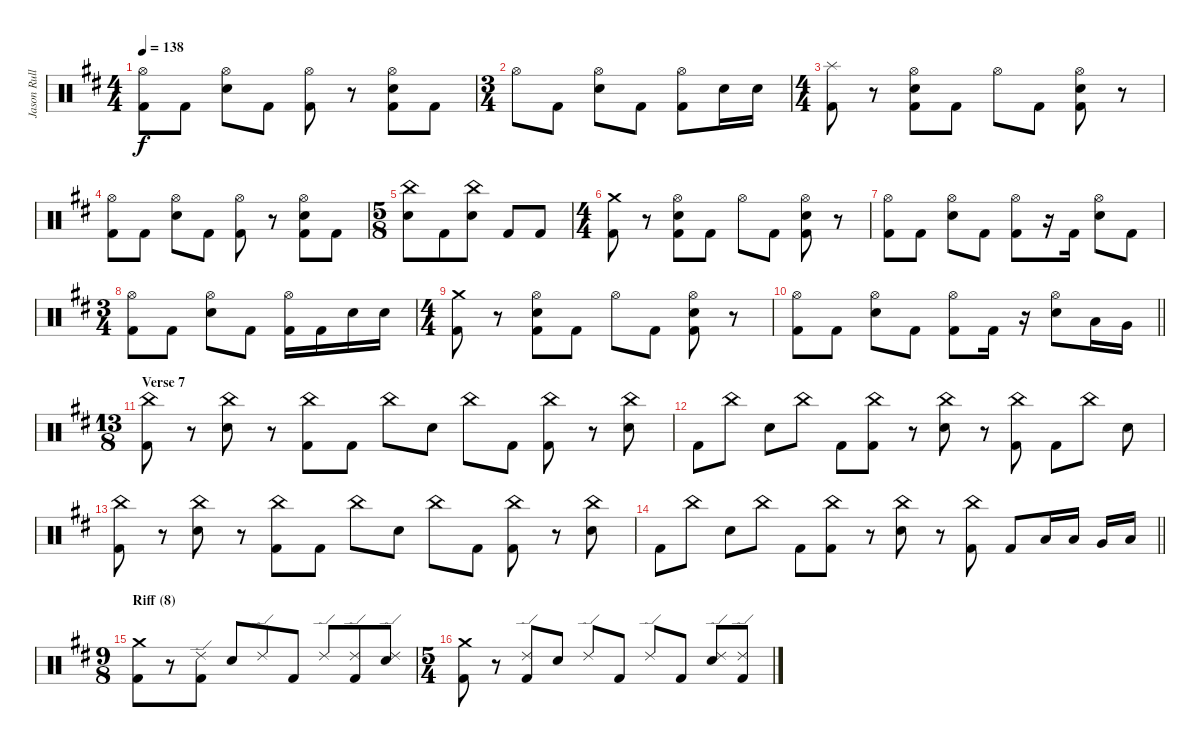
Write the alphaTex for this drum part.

\track ("Jason Rullo (drums)" "Jason Rull") {instrument percussion}
\staff {score}
\articulation defaults
\ts (4 4)
\tempo 138
\clef neutral
\ks bminor
("Hi-Hat (open)" "Kick (hit) 2").8{dy f} "Kick (hit) 2".8 ("Hi-Hat (open)" "Electric Snare (hit)").8 "Kick (hit) 2".8 ("Hi-Hat (open)" "Kick (hit) 2").8 r.8 ("Hi-Hat (open)" "Electric Snare (hit)" "Kick (hit) 2").8 "Kick (hit) 2".8 |
\ts (3 4)
"Hi-Hat (open)".8 "Kick (hit) 2".8 ("Hi-Hat (open)" "Electric Snare (hit)").8 "Kick (hit) 2".8 ("Hi-Hat (open)" "Kick (hit) 2").8 "Electric Snare (hit)".16 "Electric Snare (hit)".16 |
\ts (4 4)
("Splash (hit)" "Kick (hit) 2").8 r.8 ("Hi-Hat (open)" "Electric Snare (hit)" "Kick (hit) 2").8 "Kick (hit) 2".8 "Hi-Hat (open)".8 "Kick (hit) 2".8 ("Hi-Hat (open)" "Kick (hit) 2" "Electric Snare (hit)").8 r.8 |
("Hi-Hat (open)" "Kick (hit) 2").8 "Kick (hit) 2".8 ("Hi-Hat (open)" "Electric Snare (hit)").8 "Kick (hit) 2".8 ("Hi-Hat (open)" "Kick (hit) 2").8 r.8 ("Hi-Hat (open)" "Electric Snare (hit)" "Kick (hit) 2").8 "Kick (hit) 2".8 |
\ts (5 8)
("China (hit)" "Electric Snare (hit)").8 "Kick (hit) 2".8 ("China (hit)" "Electric Snare (hit)").8 "Kick (hit) 2".8 "Kick (hit) 2".8 |
\ts (4 4)
("Crash medium (hit)" "Kick (hit) 2").8 r.8 ("Hi-Hat (open)" "Electric Snare (hit)" "Kick (hit) 2").8 "Kick (hit) 2".8 "Hi-Hat (open)".8 "Kick (hit) 2".8 ("Hi-Hat (open)" "Kick (hit) 2" "Electric Snare (hit)").8 r.8 |
("Hi-Hat (open)" "Kick (hit) 2").8 "Kick (hit) 2".8 ("Hi-Hat (open)" "Electric Snare (hit)").8 "Kick (hit) 2".8 ("Hi-Hat (open)" "Kick (hit) 2").8 r.16 "Kick (hit) 2".16 ("Hi-Hat (open)" "Electric Snare (hit)").8 "Kick (hit) 2".8 |
\ts (3 4)
("Hi-Hat (open)" "Kick (hit) 2").8 "Kick (hit) 2".8 ("Hi-Hat (open)" "Electric Snare (hit)").8 "Kick (hit) 2".8 ("Hi-Hat (open)" "Kick (hit) 2").16 "Kick (hit) 2".16 "Electric Snare (hit)".16 "Electric Snare (hit)".16 |
\ts (4 4)
("Crash medium (hit)" "Kick (hit) 2").8 r.8 ("Hi-Hat (open)" "Electric Snare (hit)" "Kick (hit) 2").8 "Kick (hit) 2".8 "Hi-Hat (open)".8 "Kick (hit) 2".8 ("Hi-Hat (open)" "Kick (hit) 2" "Electric Snare (hit)").8 r.8 |
\barLineRight lightlight
("Hi-Hat (open)" "Kick (hit) 2").8 "Kick (hit) 2".8 ("Hi-Hat (open)" "Electric Snare (hit)").8 "Kick (hit) 2".8 ("Hi-Hat (open)" "Kick (hit) 2").8 "Kick (hit) 2".16 r.16 ("Hi-Hat (open)" "Electric Snare (hit)").8 "Low Tom (hit)".16 "Very Low Tom (hit)".16 |
\ts (13 8)
\section ("" "Verse 7")
("China (hit)" "Kick (hit) 2").8 r.8 ("China (hit)" "Electric Snare (hit)").8 r.8 ("China (hit)" "Kick (hit) 2").8 "Kick (hit) 2".8 "China (hit)".8 "Electric Snare (hit)".8 "China (hit)".8 "Kick (hit) 2".8 ("China (hit)" "Kick (hit) 2").8 r.8 ("China (hit)" "Electric Snare (hit)").8 |
"Kick (hit) 2".8 "China (hit)".8 "Electric Snare (hit)".8 "China (hit)".8 "Kick (hit) 2".8 ("China (hit)" "Kick (hit) 2").8 r.8 ("China (hit)" "Electric Snare (hit)").8 r.8 ("China (hit)" "Kick (hit) 2").8 "Kick (hit) 2".8 "China (hit)".8 "Electric Snare (hit)".8 |
("China (hit)" "Kick (hit) 2").8 r.8 ("China (hit)" "Electric Snare (hit)").8 r.8 ("China (hit)" "Kick (hit) 2").8 "Kick (hit) 2".8 "China (hit)".8 "Electric Snare (hit)".8 "China (hit)".8 "Kick (hit) 2".8 ("China (hit)" "Kick (hit) 2").8 r.8 ("China (hit)" "Electric Snare (hit)").8 |
\barLineRight lightlight "Kick (hit) 2".8 "China (hit)".8 "Electric Snare (hit)".8 "China (hit)".8 "Kick (hit) 2".8
("China (hit)" "Kick (hit) 2").8 r.8 ("China (hit)" "Electric Snare (hit)").8 r.8 ("China (hit)" "Kick (hit) 2").8 "Kick (hit) 2".8 "Low Tom (hit)".16 "Low Tom (hit)".16 "Very Low Tom (hit)".16 "Low Floor Tom (hit)".16 |
\ts (9 8)
\section ("" "Riff (8)")
("Kick (hit) 2" "Crash medium (hit)").8 r.8 ("Kick (hit) 2" "Ride (edge) 2").8 "Electric Snare (hit)".8 "Ride (edge) 2".8 "Kick (hit) 2".8 "Ride (edge) 2".8 ("Kick (hit) 2" "Ride (edge) 2").8 ("Electric Snare (hit)" "Ride (edge) 2").8 |
\ts (5 4)
("Kick (hit) 2" "Crash medium (hit)").8 r.8 ("Kick (hit) 2" "Ride (edge) 2").8 "Electric Snare (hit)".8 "Ride (edge) 2".8 "Kick (hit) 2".8 "Ride (edge) 2".8 "Kick (hit) 2".8 ("Electric Snare (hit)" "Ride (edge) 2").8 ("Kick (hit) 2" "Ride (edge) 2").8
